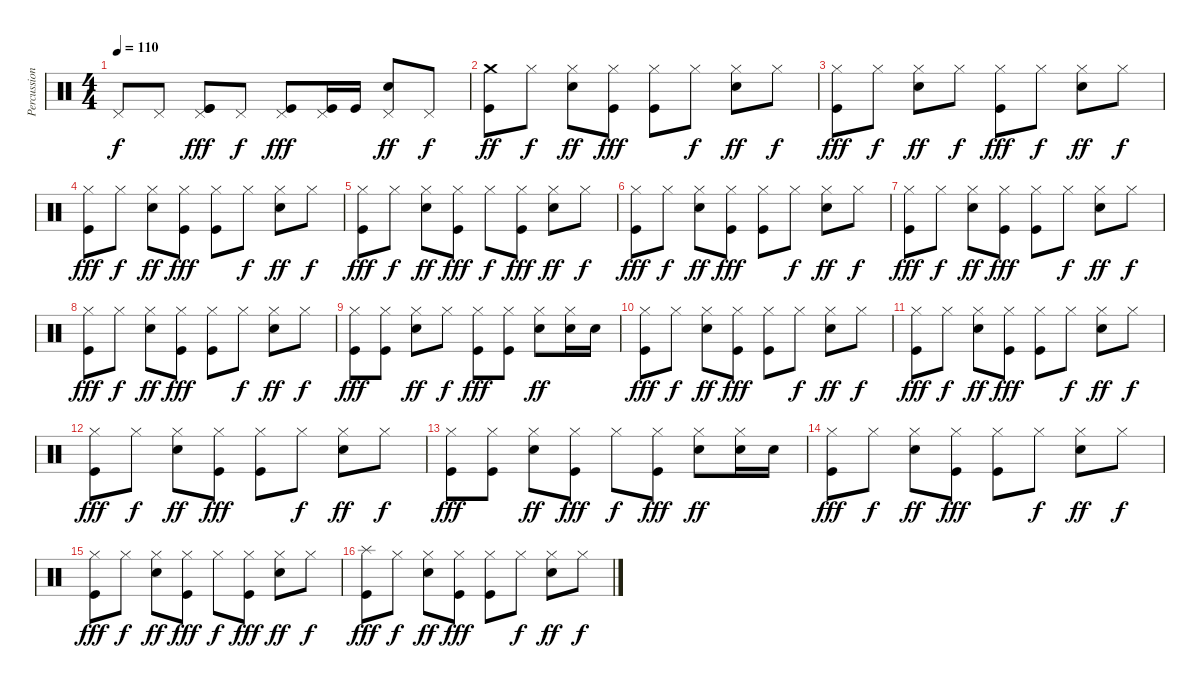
\track ("Percussion" "Percussion") {instrument percussion}
\staff {score}
\articulation defaults
\ts (4 4)
\tempo 110
\clef neutral
\ks c "Pedal Hi-Hat (hit)".8{dy f} "Pedal Hi-Hat (hit)".8
("Pedal Hi-Hat (hit)" "Kick (hit)" "Kick (hit)").8{dy fff} "Pedal Hi-Hat (hit)".8{dy f} ("Pedal Hi-Hat (hit)" "Kick (hit)").8{dy fff} ("Pedal Hi-Hat (hit)" "Kick (hit)").16 "Kick (hit)".16 ("Pedal Hi-Hat (hit)" "Snare (hit) 2").8{dy ff} "Pedal Hi-Hat (hit)".8{dy f} |
("Kick (hit)" "Crash medium (hit)").8{dy ff} "Hi-Hat (closed)".8{dy f} ("Snare (hit) 2" "Hi-Hat (closed)").8{dy ff} ("Kick (hit)" "Hi-Hat (closed)").8{dy fff} ("Kick (hit)" "Hi-Hat (closed)").8 "Hi-Hat (closed)".8{dy f} ("Snare (hit) 2" "Hi-Hat (closed)").8{dy ff} "Hi-Hat (closed)".8{dy f} |
("Kick (hit)" "Hi-Hat (closed)").8{dy fff} "Hi-Hat (closed)".8{dy f} ("Snare (hit) 2" "Hi-Hat (closed)").8{dy ff} "Hi-Hat (closed)".8{dy f} ("Kick (hit)" "Hi-Hat (closed)").8{dy fff} "Hi-Hat (closed)".8{dy f} ("Snare (hit) 2" "Hi-Hat (closed)").8{dy ff} "Hi-Hat (closed)".8{dy f} |
("Kick (hit)" "Hi-Hat (closed)").8{dy fff} "Hi-Hat (closed)".8{dy f} ("Snare (hit) 2" "Hi-Hat (closed)").8{dy ff} ("Kick (hit)" "Hi-Hat (closed)").8{dy fff} ("Kick (hit)" "Hi-Hat (closed)").8 "Hi-Hat (closed)".8{dy f} ("Snare (hit) 2" "Hi-Hat (closed)").8{dy ff} "Hi-Hat (closed)".8{dy f} |
("Kick (hit)" "Hi-Hat (closed)").8{dy fff} "Hi-Hat (closed)".8{dy f} ("Snare (hit) 2" "Hi-Hat (closed)").8{dy ff} ("Kick (hit)" "Hi-Hat (closed)").8{dy fff} "Hi-Hat (closed)".8{dy f} ("Kick (hit)" "Hi-Hat (closed)").8{dy fff} ("Snare (hit) 2" "Hi-Hat (closed)").8{dy ff} "Hi-Hat (closed)".8{dy f} |
("Kick (hit)" "Hi-Hat (closed)").8{dy fff} "Hi-Hat (closed)".8{dy f} ("Snare (hit) 2" "Hi-Hat (closed)").8{dy ff} ("Kick (hit)" "Hi-Hat (closed)").8{dy fff} ("Kick (hit)" "Hi-Hat (closed)").8 "Hi-Hat (closed)".8{dy f} ("Snare (hit) 2" "Hi-Hat (closed)").8{dy ff} "Hi-Hat (closed)".8{dy f} |
("Kick (hit)" "Hi-Hat (closed)").8{dy fff} "Hi-Hat (closed)".8{dy f} ("Snare (hit) 2" "Hi-Hat (closed)").8{dy ff} ("Kick (hit)" "Hi-Hat (closed)").8{dy fff} ("Kick (hit)" "Hi-Hat (closed)").8 "Hi-Hat (closed)".8{dy f} ("Snare (hit) 2" "Hi-Hat (closed)").8{dy ff} "Hi-Hat (closed)".8{dy f} |
("Kick (hit)" "Hi-Hat (closed)").8{dy fff} "Hi-Hat (closed)".8{dy f} ("Snare (hit) 2" "Hi-Hat (closed)").8{dy ff} ("Kick (hit)" "Hi-Hat (closed)").8{dy fff} ("Kick (hit)" "Hi-Hat (closed)").8 "Hi-Hat (closed)".8{dy f} ("Snare (hit) 2" "Hi-Hat (closed)").8{dy ff} "Hi-Hat (closed)".8{dy f} |
("Kick (hit)" "Hi-Hat (closed)").8{dy fff} ("Kick (hit)" "Hi-Hat (closed)").8 ("Snare (hit) 2" "Hi-Hat (closed)").8{dy ff} "Hi-Hat (closed)".8{dy f} ("Kick (hit)" "Hi-Hat (closed)").8{dy fff} ("Kick (hit)" "Hi-Hat (closed)").8 ("Snare (hit) 2" "Hi-Hat (closed)").8{dy ff} ("Snare (hit) 2" "Hi-Hat (closed)").16 "Snare (hit) 2".16 |
("Kick (hit)" "Hi-Hat (closed)").8{dy fff} "Hi-Hat (closed)".8{dy f} ("Snare (hit) 2" "Hi-Hat (closed)").8{dy ff} ("Kick (hit)" "Hi-Hat (closed)").8{dy fff} ("Kick (hit)" "Hi-Hat (closed)").8 "Hi-Hat (closed)".8{dy f} ("Snare (hit) 2" "Hi-Hat (closed)").8{dy ff} "Hi-Hat (closed)".8{dy f} |
("Kick (hit)" "Hi-Hat (closed)").8{dy fff} "Hi-Hat (closed)".8{dy f} ("Snare (hit) 2" "Hi-Hat (closed)").8{dy ff} ("Kick (hit)" "Hi-Hat (closed)").8{dy fff} ("Kick (hit)" "Hi-Hat (closed)").8 "Hi-Hat (closed)".8{dy f} ("Snare (hit) 2" "Hi-Hat (closed)").8{dy ff} "Hi-Hat (closed)".8{dy f} |
("Kick (hit)" "Hi-Hat (closed)").8{dy fff} "Hi-Hat (closed)".8{dy f} ("Snare (hit) 2" "Hi-Hat (closed)").8{dy ff} ("Kick (hit)" "Hi-Hat (closed)").8{dy fff} ("Kick (hit)" "Hi-Hat (closed)").8 "Hi-Hat (closed)".8{dy f} ("Snare (hit) 2" "Hi-Hat (closed)").8{dy ff} "Hi-Hat (closed)".8{dy f} |
("Kick (hit)" "Hi-Hat (closed)").8{dy fff} ("Kick (hit)" "Hi-Hat (closed)").8 ("Snare (hit) 2" "Hi-Hat (closed)").8{dy ff} ("Kick (hit)" "Hi-Hat (closed)").8{dy fff} "Hi-Hat (closed)".8{dy f} ("Kick (hit)" "Hi-Hat (closed)").8{dy fff} ("Snare (hit) 2" "Hi-Hat (closed)").8{dy ff} ("Snare (hit) 2" "Hi-Hat (closed)").16 "Snare (hit) 2".16 |
("Kick (hit)" "Hi-Hat (closed)").8{dy fff} "Hi-Hat (closed)".8{dy f} ("Snare (hit) 2" "Hi-Hat (closed)").8{dy ff} ("Kick (hit)" "Hi-Hat (closed)").8{dy fff} ("Kick (hit)" "Hi-Hat (closed)").8 "Hi-Hat (closed)".8{dy f} ("Snare (hit) 2" "Hi-Hat (closed)").8{dy ff} "Hi-Hat (closed)".8{dy f} |
("Kick (hit)" "Hi-Hat (closed)").8{dy fff} "Hi-Hat (closed)".8{dy f} ("Snare (hit) 2" "Hi-Hat (closed)").8{dy ff} ("Kick (hit)" "Hi-Hat (closed)").8{dy fff} "Hi-Hat (closed)".8{dy f} ("Kick (hit)" "Hi-Hat (closed)").8{dy fff} ("Snare (hit) 2" "Hi-Hat (closed)").8{dy ff} "Hi-Hat (closed)".8{dy f} |
("Kick (hit)" "Splash (hit)").8{dy fff} "Hi-Hat (closed)".8{dy f} ("Snare (hit) 2" "Hi-Hat (closed)").8{dy ff} ("Kick (hit)" "Hi-Hat (closed)").8{dy fff} ("Kick (hit)" "Hi-Hat (closed)").8 "Hi-Hat (closed)".8{dy f} ("Snare (hit) 2" "Hi-Hat (closed)").8{dy ff} "Hi-Hat (closed)".8{dy f}
